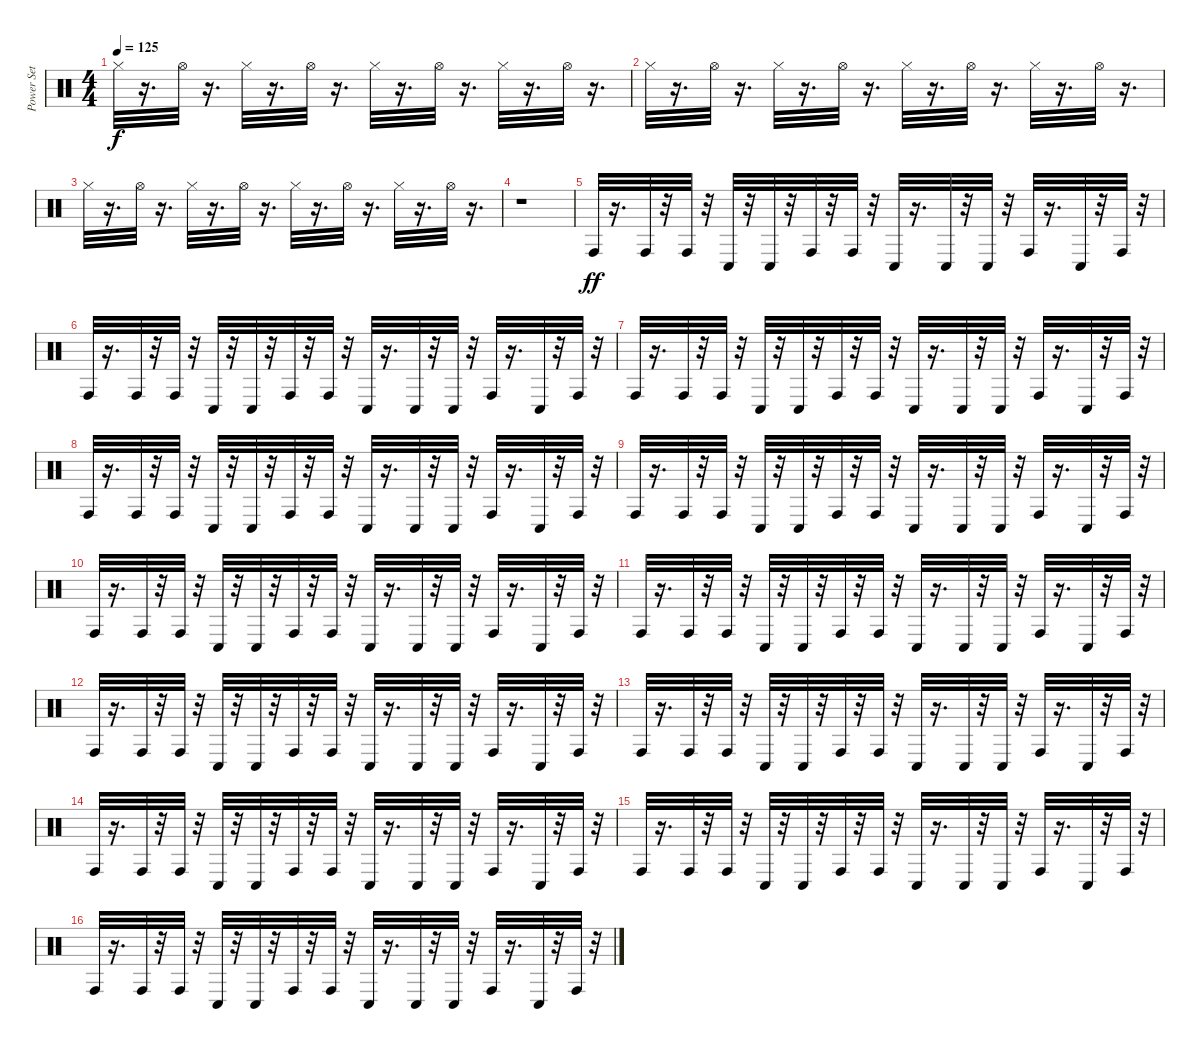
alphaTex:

\track ("Power Set" "Power Set") {instrument percussion}
\staff {score}
\articulation defaults
\ts (4 4)
\tempo 125
\clef neutral
\ks c "Hi-Hat (closed)".32{dy f}
r.16{d} "Hi-Hat (open)".32 r.16{d} "Hi-Hat (closed)".32 r.16{d} "Hi-Hat (open)".32 r.16{d} "Hi-Hat (closed)".32 r.16{d} "Hi-Hat (open)".32 r.16{d} "Hi-Hat (closed)".32 r.16{d} "Hi-Hat (open)".32 r.16{d} |
"Hi-Hat (closed)".32 r.16{d} "Hi-Hat (open)".32 r.16{d} "Hi-Hat (closed)".32 r.16{d} "Hi-Hat (open)".32 r.16{d} "Hi-Hat (closed)".32 r.16{d} "Hi-Hat (open)".32 r.16{d} "Hi-Hat (closed)".32 r.16{d} "Hi-Hat (open)".32 r.16{d} |
"Hi-Hat (closed)".32 r.16{d} "Hi-Hat (open)".32 r.16{d} "Hi-Hat (closed)".32 r.16{d} "Hi-Hat (open)".32 r.16{d} "Hi-Hat (closed)".32 r.16{d} "Hi-Hat (open)".32 r.16{d} "Hi-Hat (closed)".32 r.16{d} "Hi-Hat (open)".32 r.16{d} |
r.1 |
"Conga high (hit)".32{dy ff} r.16{d} "Conga high (hit)".32 r.32 "Conga high (hit)".32 r.32 "Conga low (hit)".32 r.32 "Conga low (hit)".32 r.32 "Conga high (hit)".32 r.32 "Conga high (hit)".32 r.32 "Conga low (hit)".32 r.16{d} "Conga low (hit)".32 r.32 "Conga low (hit)".32 r.32 "Conga high (hit)".32 r.16{d} "Conga low (hit)".32 r.32 "Conga high (hit)".32 r.32 |
"Conga high (hit)".32 r.16{d} "Conga high (hit)".32 r.32 "Conga high (hit)".32 r.32 "Conga low (hit)".32 r.32 "Conga low (hit)".32 r.32 "Conga high (hit)".32 r.32 "Conga high (hit)".32 r.32 "Conga low (hit)".32 r.16{d} "Conga low (hit)".32 r.32 "Conga low (hit)".32 r.32 "Conga high (hit)".32 r.16{d} "Conga low (hit)".32 r.32 "Conga high (hit)".32 r.32 |
"Conga high (hit)".32 r.16{d} "Conga high (hit)".32 r.32 "Conga high (hit)".32 r.32 "Conga low (hit)".32 r.32 "Conga low (hit)".32 r.32 "Conga high (hit)".32 r.32 "Conga high (hit)".32 r.32 "Conga low (hit)".32 r.16{d} "Conga low (hit)".32 r.32 "Conga low (hit)".32 r.32 "Conga high (hit)".32 r.16{d} "Conga low (hit)".32 r.32 "Conga high (hit)".32 r.32 |
"Conga high (hit)".32 r.16{d} "Conga high (hit)".32 r.32 "Conga high (hit)".32 r.32 "Conga low (hit)".32 r.32 "Conga low (hit)".32 r.32 "Conga high (hit)".32 r.32 "Conga high (hit)".32 r.32 "Conga low (hit)".32 r.16{d} "Conga low (hit)".32 r.32 "Conga low (hit)".32 r.32 "Conga high (hit)".32 r.16{d} "Conga low (hit)".32 r.32 "Conga high (hit)".32 r.32 |
"Conga high (hit)".32 r.16{d} "Conga high (hit)".32 r.32 "Conga high (hit)".32 r.32 "Conga low (hit)".32 r.32 "Conga low (hit)".32 r.32 "Conga high (hit)".32 r.32 "Conga high (hit)".32 r.32 "Conga low (hit)".32 r.16{d} "Conga low (hit)".32 r.32 "Conga low (hit)".32 r.32 "Conga high (hit)".32 r.16{d} "Conga low (hit)".32 r.32 "Conga high (hit)".32 r.32 |
"Conga high (hit)".32 r.16{d} "Conga high (hit)".32 r.32 "Conga high (hit)".32 r.32 "Conga low (hit)".32 r.32 "Conga low (hit)".32 r.32 "Conga high (hit)".32 r.32 "Conga high (hit)".32 r.32 "Conga low (hit)".32 r.16{d} "Conga low (hit)".32 r.32 "Conga low (hit)".32 r.32 "Conga high (hit)".32 r.16{d} "Conga low (hit)".32 r.32 "Conga high (hit)".32 r.32 |
"Conga high (hit)".32 r.16{d} "Conga high (hit)".32 r.32 "Conga high (hit)".32 r.32 "Conga low (hit)".32 r.32 "Conga low (hit)".32 r.32 "Conga high (hit)".32 r.32 "Conga high (hit)".32 r.32 "Conga low (hit)".32 r.16{d} "Conga low (hit)".32 r.32 "Conga low (hit)".32 r.32 "Conga high (hit)".32 r.16{d} "Conga low (hit)".32 r.32 "Conga high (hit)".32 r.32 |
"Conga high (hit)".32 r.16{d} "Conga high (hit)".32 r.32 "Conga high (hit)".32 r.32 "Conga low (hit)".32 r.32 "Conga low (hit)".32 r.32 "Conga high (hit)".32 r.32 "Conga high (hit)".32 r.32 "Conga low (hit)".32 r.16{d} "Conga low (hit)".32 r.32 "Conga low (hit)".32 r.32 "Conga high (hit)".32 r.16{d} "Conga low (hit)".32 r.32 "Conga high (hit)".32 r.32 |
"Conga high (hit)".32 r.16{d} "Conga high (hit)".32 r.32 "Conga high (hit)".32 r.32 "Conga low (hit)".32 r.32 "Conga low (hit)".32 r.32 "Conga high (hit)".32 r.32 "Conga high (hit)".32 r.32 "Conga low (hit)".32 r.16{d} "Conga low (hit)".32 r.32 "Conga low (hit)".32 r.32 "Conga high (hit)".32 r.16{d} "Conga low (hit)".32 r.32 "Conga high (hit)".32 r.32 |
"Conga high (hit)".32 r.16{d} "Conga high (hit)".32 r.32 "Conga high (hit)".32 r.32 "Conga low (hit)".32 r.32 "Conga low (hit)".32 r.32 "Conga high (hit)".32 r.32 "Conga high (hit)".32 r.32 "Conga low (hit)".32 r.16{d} "Conga low (hit)".32 r.32 "Conga low (hit)".32 r.32 "Conga high (hit)".32 r.16{d} "Conga low (hit)".32 r.32 "Conga high (hit)".32 r.32 |
"Conga high (hit)".32 r.16{d} "Conga high (hit)".32 r.32 "Conga high (hit)".32 r.32 "Conga low (hit)".32 r.32 "Conga low (hit)".32 r.32 "Conga high (hit)".32 r.32 "Conga high (hit)".32 r.32 "Conga low (hit)".32 r.16{d} "Conga low (hit)".32 r.32 "Conga low (hit)".32 r.32 "Conga high (hit)".32 r.16{d} "Conga low (hit)".32 r.32 "Conga high (hit)".32 r.32 |
"Conga high (hit)".32 r.16{d} "Conga high (hit)".32 r.32 "Conga high (hit)".32 r.32 "Conga low (hit)".32 r.32 "Conga low (hit)".32 r.32 "Conga high (hit)".32 r.32 "Conga high (hit)".32 r.32 "Conga low (hit)".32 r.16{d} "Conga low (hit)".32 r.32 "Conga low (hit)".32 r.32 "Conga high (hit)".32 r.16{d} "Conga low (hit)".32 r.32 "Conga high (hit)".32 r.32
